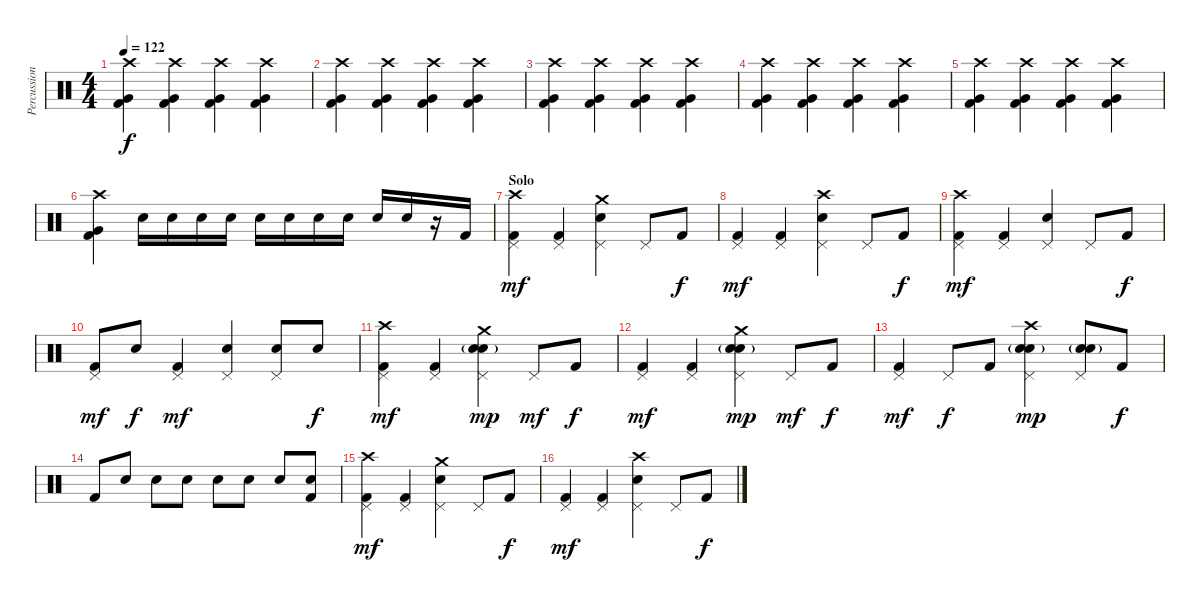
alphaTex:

\track ("Percussion" "Percussion") {instrument percussion}
\staff {score}
\articulation defaults
\ts (4 4)
\tempo 122
\clef neutral
\ks c
("Crash high (hit)" "Very Low Tom (hit)" "Kick (hit) 2").4{dy f} ("Crash high (hit)" "Very Low Tom (hit)" "Kick (hit) 2").4 ("Crash high (hit)" "Very Low Tom (hit)" "Kick (hit) 2").4 ("Crash high (hit)" "Very Low Tom (hit)" "Kick (hit) 2").4 |
("Crash high (hit)" "Very Low Tom (hit)" "Kick (hit) 2").4 ("Crash high (hit)" "Very Low Tom (hit)" "Kick (hit) 2").4 ("Crash high (hit)" "Very Low Tom (hit)" "Kick (hit) 2").4 ("Crash high (hit)" "Very Low Tom (hit)" "Kick (hit) 2").4 |
("Crash high (hit)" "Very Low Tom (hit)" "Kick (hit) 2").4 ("Crash high (hit)" "Very Low Tom (hit)" "Kick (hit) 2").4 ("Crash high (hit)" "Very Low Tom (hit)" "Kick (hit) 2").4 ("Crash high (hit)" "Very Low Tom (hit)" "Kick (hit) 2").4 |
("Crash high (hit)" "Very Low Tom (hit)" "Kick (hit) 2").4 ("Crash high (hit)" "Very Low Tom (hit)" "Kick (hit) 2").4 ("Crash high (hit)" "Very Low Tom (hit)" "Kick (hit) 2").4 ("Crash high (hit)" "Very Low Tom (hit)" "Kick (hit) 2").4 |
("Crash high (hit)" "Very Low Tom (hit)" "Kick (hit) 2").4 ("Crash high (hit)" "Very Low Tom (hit)" "Kick (hit) 2").4 ("Crash high (hit)" "Very Low Tom (hit)" "Kick (hit) 2").4 ("Crash high (hit)" "Very Low Tom (hit)" "Kick (hit) 2").4 |
("Crash high (hit)" "Very Low Tom (hit)" "Kick (hit) 2").4 "Electric Snare (hit)".16 "Electric Snare (hit)".16 "Electric Snare (hit)".16 "Electric Snare (hit)".16 "Electric Snare (hit)".16 "Electric Snare (hit)".16 "Electric Snare (hit)".16 "Electric Snare (hit)".16 "Electric Snare (hit)".16 "Electric Snare (hit)".16 r.16 "Kick (hit) 2".16 |
\section ("" "Solo")
("Pedal Hi-Hat (hit)" "Crash high (hit)" "Kick (hit) 2").4{dy mf} ("Pedal Hi-Hat (hit)" "Kick (hit) 2").4 ("Pedal Hi-Hat (hit)" "Crash medium (hit)" "Electric Snare (hit)").4 "Pedal Hi-Hat (hit)".8 "Kick (hit) 2".8{dy f} |
("Pedal Hi-Hat (hit)" "Kick (hit) 2").4{dy mf} ("Pedal Hi-Hat (hit)" "Kick (hit) 2").4 ("Pedal Hi-Hat (hit)" "Crash high (hit)" "Electric Snare (hit)").4 "Pedal Hi-Hat (hit)".8 "Kick (hit) 2".8{dy f} |
("Pedal Hi-Hat (hit)" "Crash high (hit)" "Kick (hit) 2").4{dy mf} ("Pedal Hi-Hat (hit)" "Kick (hit) 2").4 ("Pedal Hi-Hat (hit)" "Electric Snare (hit)").4 "Pedal Hi-Hat (hit)".8 "Kick (hit) 2".8{dy f} |
("Pedal Hi-Hat (hit)" "Kick (hit) 2").8{dy mf} "Snare (hit) 2".8{dy f} ("Pedal Hi-Hat (hit)" "Kick (hit) 2").4{dy mf} ("Pedal Hi-Hat (hit)" "Snare (hit) 2").4 ("Pedal Hi-Hat (hit)" "Electric Snare (hit)").8 "Electric Snare (hit)".8{dy f} |
("Pedal Hi-Hat (hit)" "Crash high (hit)" "Kick (hit) 2").4{dy mf} ("Pedal Hi-Hat (hit)" "Kick (hit) 2").4 ("Pedal Hi-Hat (hit)" "Crash medium (hit)" "Electric Snare (hit)" "Snare (hit) 2"{g}).4{dy mp} "Pedal Hi-Hat (hit)".8{dy mf} "Kick (hit) 2".8{dy f} |
("Pedal Hi-Hat (hit)" "Kick (hit) 2").4{dy mf} ("Pedal Hi-Hat (hit)" "Kick (hit) 2").4 ("Pedal Hi-Hat (hit)" "Crash medium (hit)" "Electric Snare (hit)" "Snare (hit) 2"{g}).4{dy mp} "Pedal Hi-Hat (hit)".8{dy mf} "Kick (hit) 2".8{dy f} |
("Pedal Hi-Hat (hit)" "Kick (hit) 2").4{dy mf} "Pedal Hi-Hat (hit)".8{dy f} "Kick (hit) 2".8 ("Pedal Hi-Hat (hit)" "Crash high (hit)" "Electric Snare (hit)" "Snare (hit) 2"{g}).4{dy mp} ("Pedal Hi-Hat (hit)" "Electric Snare (hit)" "Snare (hit) 2"{g}).8 "Kick (hit) 2".8{dy f} |
"Kick (hit) 2".8 "Snare (hit) 2".8 "Snare (hit) 2".8 "Snare (hit) 2".8 "Snare (hit) 2".8 "Snare (hit) 2".8 "Snare (hit) 2".8 ("Snare (hit) 2" "Kick (hit) 2").8 |
("Pedal Hi-Hat (hit)" "Crash high (hit)" "Kick (hit) 2").4{dy mf} ("Pedal Hi-Hat (hit)" "Kick (hit) 2").4 ("Pedal Hi-Hat (hit)" "Crash medium (hit)" "Electric Snare (hit)").4 "Pedal Hi-Hat (hit)".8 "Kick (hit) 2".8{dy f} |
("Pedal Hi-Hat (hit)" "Kick (hit) 2").4{dy mf} ("Pedal Hi-Hat (hit)" "Kick (hit) 2").4 ("Pedal Hi-Hat (hit)" "Crash high (hit)" "Electric Snare (hit)").4 "Pedal Hi-Hat (hit)".8 "Kick (hit) 2".8{dy f}
